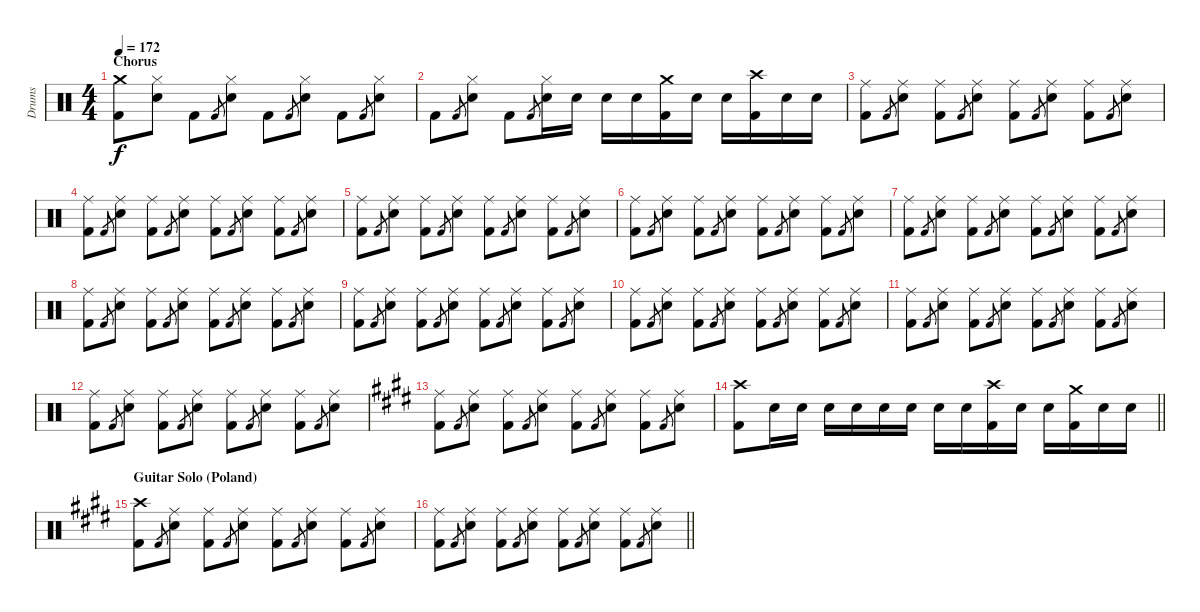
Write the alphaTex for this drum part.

\track ("Drums" "Drums") {instrument percussion}
\staff {score}
\articulation defaults
\ts (4 4)
\section ("" "Chorus")
\tempo 172
\clef neutral
\ks c
("Crash medium (hit)" "Kick (hit) 2").8{dy f} ("Hi-Hat (closed)" "Snare (hit) 2").8 "Kick (hit) 2".8 "Kick (hit) 2".8{gr} ("Hi-Hat (closed)" "Snare (hit) 2").8 "Kick (hit) 2".8 "Kick (hit) 2".8{gr} ("Hi-Hat (closed)" "Snare (hit) 2").8 "Kick (hit) 2".8 "Kick (hit) 2".8{gr} ("Hi-Hat (closed)" "Snare (hit) 2").8 |
"Kick (hit) 2".8 "Kick (hit) 2".8{gr} ("Hi-Hat (closed)" "Snare (hit) 2").8 "Kick (hit) 2".8 "Kick (hit) 2".8{gr} ("Hi-Hat (closed)" "Snare (hit) 2").16 "Snare (hit) 2".16 "Snare (hit) 2".16 "Snare (hit) 2".16 ("Crash medium (hit)" "Kick (hit) 2").16 "Snare (hit) 2".16 "Snare (hit) 2".16 ("Crash high (hit)" "Kick (hit) 2").16 "Snare (hit) 2".16 "Snare (hit) 2".16 |
("Ride (middle)" "Kick (hit) 2").8 "Kick (hit) 2".8{gr} ("Ride (middle)" "Snare (hit) 2").8 ("Ride (middle)" "Kick (hit) 2").8 "Kick (hit) 2".8{gr} ("Ride (middle)" "Snare (hit) 2").8 ("Ride (middle)" "Kick (hit) 2").8 "Kick (hit) 2".8{gr} ("Ride (middle)" "Snare (hit) 2").8 ("Ride (middle)" "Kick (hit) 2").8 "Kick (hit) 2".8{gr} ("Ride (middle)" "Snare (hit) 2").8 |
("Ride (middle)" "Kick (hit) 2").8 "Kick (hit) 2".8{gr} ("Ride (middle)" "Snare (hit) 2").8 ("Ride (middle)" "Kick (hit) 2").8 "Kick (hit) 2".8{gr} ("Ride (middle)" "Snare (hit) 2").8 ("Ride (middle)" "Kick (hit) 2").8 "Kick (hit) 2".8{gr} ("Ride (middle)" "Snare (hit) 2").8 ("Ride (middle)" "Kick (hit) 2").8 "Kick (hit) 2".8{gr} ("Ride (middle)" "Snare (hit) 2").8 |
("Ride (middle)" "Kick (hit) 2").8 "Kick (hit) 2".8{gr} ("Ride (middle)" "Snare (hit) 2").8 ("Ride (middle)" "Kick (hit) 2").8 "Kick (hit) 2".8{gr} ("Ride (middle)" "Snare (hit) 2").8 ("Ride (middle)" "Kick (hit) 2").8 "Kick (hit) 2".8{gr} ("Ride (middle)" "Snare (hit) 2").8 ("Ride (middle)" "Kick (hit) 2").8 "Kick (hit) 2".8{gr} ("Ride (middle)" "Snare (hit) 2").8 |
("Ride (middle)" "Kick (hit) 2").8 "Kick (hit) 2".8{gr} ("Ride (middle)" "Snare (hit) 2").8 ("Ride (middle)" "Kick (hit) 2").8 "Kick (hit) 2".8{gr} ("Ride (middle)" "Snare (hit) 2").8 ("Ride (middle)" "Kick (hit) 2").8 "Kick (hit) 2".8{gr} ("Ride (middle)" "Snare (hit) 2").8 ("Ride (middle)" "Kick (hit) 2").8 "Kick (hit) 2".8{gr} ("Ride (middle)" "Snare (hit) 2").8 |
("Ride (middle)" "Kick (hit) 2").8 "Kick (hit) 2".8{gr} ("Ride (middle)" "Snare (hit) 2").8 ("Ride (middle)" "Kick (hit) 2").8 "Kick (hit) 2".8{gr} ("Ride (middle)" "Snare (hit) 2").8 ("Ride (middle)" "Kick (hit) 2").8 "Kick (hit) 2".8{gr} ("Ride (middle)" "Snare (hit) 2").8 ("Ride (middle)" "Kick (hit) 2").8 "Kick (hit) 2".8{gr} ("Ride (middle)" "Snare (hit) 2").8 |
("Ride (middle)" "Kick (hit) 2").8 "Kick (hit) 2".8{gr} ("Ride (middle)" "Snare (hit) 2").8 ("Ride (middle)" "Kick (hit) 2").8 "Kick (hit) 2".8{gr} ("Ride (middle)" "Snare (hit) 2").8 ("Ride (middle)" "Kick (hit) 2").8 "Kick (hit) 2".8{gr} ("Ride (middle)" "Snare (hit) 2").8 ("Ride (middle)" "Kick (hit) 2").8 "Kick (hit) 2".8{gr} ("Ride (middle)" "Snare (hit) 2").8 |
("Ride (middle)" "Kick (hit) 2").8 "Kick (hit) 2".8{gr} ("Ride (middle)" "Snare (hit) 2").8 ("Ride (middle)" "Kick (hit) 2").8 "Kick (hit) 2".8{gr} ("Ride (middle)" "Snare (hit) 2").8 ("Ride (middle)" "Kick (hit) 2").8 "Kick (hit) 2".8{gr} ("Ride (middle)" "Snare (hit) 2").8 ("Ride (middle)" "Kick (hit) 2").8 "Kick (hit) 2".8{gr} ("Ride (middle)" "Snare (hit) 2").8 |
("Ride (middle)" "Kick (hit) 2").8 "Kick (hit) 2".8{gr} ("Ride (middle)" "Snare (hit) 2").8 ("Ride (middle)" "Kick (hit) 2").8 "Kick (hit) 2".8{gr} ("Ride (middle)" "Snare (hit) 2").8 ("Ride (middle)" "Kick (hit) 2").8 "Kick (hit) 2".8{gr} ("Ride (middle)" "Snare (hit) 2").8 ("Ride (middle)" "Kick (hit) 2").8 "Kick (hit) 2".8{gr} ("Ride (middle)" "Snare (hit) 2").8 |
("Ride (middle)" "Kick (hit) 2").8 "Kick (hit) 2".8{gr} ("Ride (middle)" "Snare (hit) 2").8 ("Ride (middle)" "Kick (hit) 2").8 "Kick (hit) 2".8{gr} ("Ride (middle)" "Snare (hit) 2").8 ("Ride (middle)" "Kick (hit) 2").8 "Kick (hit) 2".8{gr} ("Ride (middle)" "Snare (hit) 2").8 ("Ride (middle)" "Kick (hit) 2").8 "Kick (hit) 2".8{gr} ("Ride (middle)" "Snare (hit) 2").8 |
("Ride (middle)" "Kick (hit) 2").8 "Kick (hit) 2".8{gr} ("Ride (middle)" "Snare (hit) 2").8 ("Ride (middle)" "Kick (hit) 2").8 "Kick (hit) 2".8{gr} ("Ride (middle)" "Snare (hit) 2").8 ("Ride (middle)" "Kick (hit) 2").8 "Kick (hit) 2".8{gr} ("Ride (middle)" "Snare (hit) 2").8 ("Ride (middle)" "Kick (hit) 2").8 "Kick (hit) 2".8{gr} ("Ride (middle)" "Snare (hit) 2").8 |
\ks e
("Ride (middle)" "Kick (hit) 2").8 "Kick (hit) 2".8{gr} ("Ride (middle)" "Snare (hit) 2").8 ("Ride (middle)" "Kick (hit) 2").8 "Kick (hit) 2".8{gr} ("Ride (middle)" "Snare (hit) 2").8 ("Ride (middle)" "Kick (hit) 2").8 "Kick (hit) 2".8{gr} ("Ride (middle)" "Snare (hit) 2").8 ("Ride (middle)" "Kick (hit) 2").8 "Kick (hit) 2".8{gr} ("Ride (middle)" "Snare (hit) 2").8 |
\barLineRight lightlight
("Crash high (hit)" "Kick (hit) 2").8 "Snare (hit) 2".16 "Snare (hit) 2".16 "Snare (hit) 2".16 "Snare (hit) 2".16 "Snare (hit) 2".16 "Snare (hit) 2".16 "Snare (hit) 2".16 "Snare (hit) 2".16 ("Crash high (hit)" "Kick (hit) 2").16 "Snare (hit) 2".16 "Snare (hit) 2".16 ("Crash medium (hit)" "Kick (hit) 2").16 "Snare (hit) 2".16 "Snare (hit) 2".16 |
\section ("" "Guitar Solo (Poland)")
("Crash high (hit)" "Kick (hit) 2").8 "Kick (hit) 2".8{gr} ("Ride (middle)" "Snare (hit) 2").8 ("Ride (middle)" "Kick (hit) 2").8 "Kick (hit) 2".8{gr} ("Ride (middle)" "Snare (hit) 2").8 ("Ride (middle)" "Kick (hit) 2").8 "Kick (hit) 2".8{gr} ("Ride (middle)" "Snare (hit) 2").8 ("Ride (middle)" "Kick (hit) 2").8 "Kick (hit) 2".8{gr} ("Ride (middle)" "Snare (hit) 2").8 |
\barLineRight lightlight
("Ride (middle)" "Kick (hit) 2").8 "Kick (hit) 2".8{gr} ("Ride (middle)" "Snare (hit) 2").8 ("Ride (middle)" "Kick (hit) 2").8 "Kick (hit) 2".8{gr} ("Ride (middle)" "Snare (hit) 2").8 ("Ride (middle)" "Kick (hit) 2").8 "Kick (hit) 2".8{gr} ("Ride (middle)" "Snare (hit) 2").8 ("Ride (middle)" "Kick (hit) 2").8 "Kick (hit) 2".8{gr} ("Ride (middle)" "Snare (hit) 2").8
